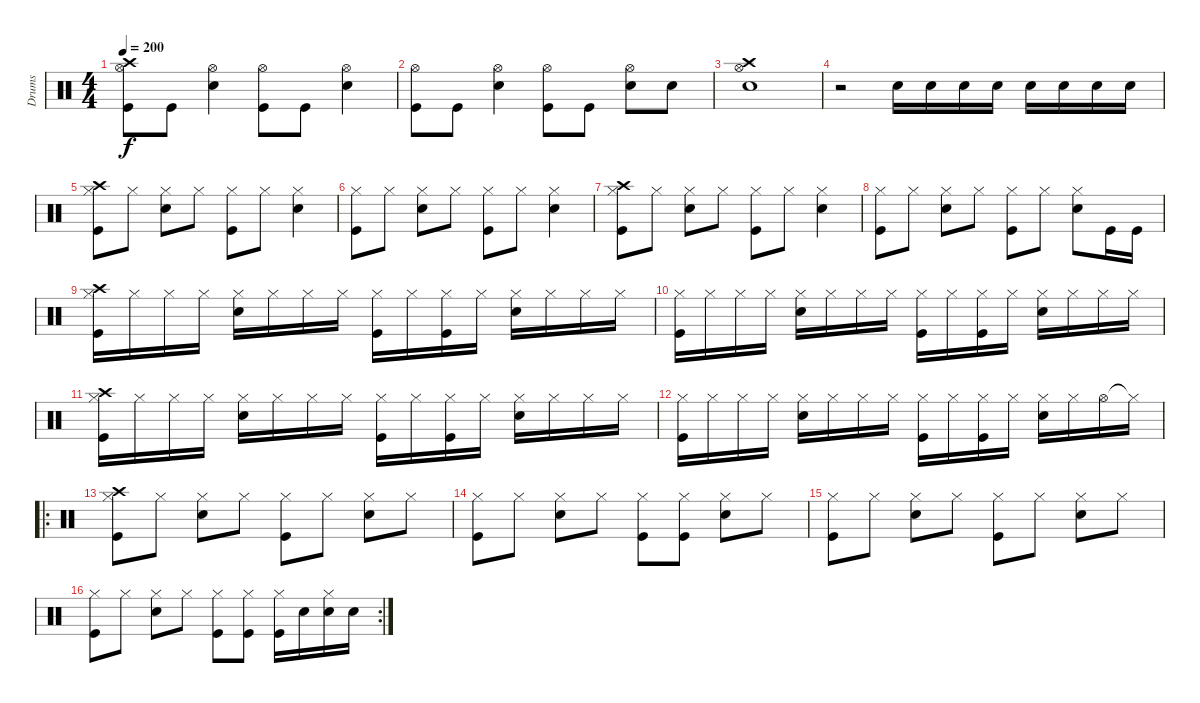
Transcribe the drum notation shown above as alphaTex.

\track ("Drums" "Drums") {instrument percussion}
\staff {score}
\articulation defaults
\ts (4 4)
\tempo 200
\clef neutral
\ks c
("Crash high (hit)" "Hi-Hat (open)" "Kick (hit)").8{dy f} "Kick (hit)".8 ("Hi-Hat (open)" "Snare (hit) 2").4 ("Hi-Hat (open)" "Kick (hit)").8 "Kick (hit)".8 ("Hi-Hat (open)" "Snare (hit) 2").4 |
("Hi-Hat (open)" "Kick (hit)").8 "Kick (hit)".8 ("Hi-Hat (open)" "Snare (hit) 2").4 ("Hi-Hat (open)" "Kick (hit)").8 "Kick (hit)".8 ("Hi-Hat (open)" "Snare (hit) 2").8 "Snare (hit) 2".8 |
("Crash high (hit)" "Hi-Hat (open)" "Snare (hit) 2").1 |
r.2 "Snare (hit) 2".16 "Snare (hit) 2".16 "Snare (hit) 2".16 "Snare (hit) 2".16 "Snare (hit) 2".16 "Snare (hit) 2".16 "Snare (hit) 2".16 "Snare (hit) 2".16 |
("Crash high (hit)" "Hi-Hat (closed)" "Kick (hit)").8 "Hi-Hat (closed)".8 ("Hi-Hat (closed)" "Snare (hit) 2").8 "Hi-Hat (closed)".8 ("Hi-Hat (closed)" "Kick (hit)").8 "Hi-Hat (closed)".8 ("Hi-Hat (closed)" "Snare (hit) 2").4 |
("Hi-Hat (closed)" "Kick (hit)").8 "Hi-Hat (closed)".8 ("Hi-Hat (closed)" "Snare (hit) 2").8 "Hi-Hat (closed)".8 ("Hi-Hat (closed)" "Kick (hit)").8 "Hi-Hat (closed)".8 ("Hi-Hat (closed)" "Snare (hit) 2").4 |
("Crash high (hit)" "Hi-Hat (closed)" "Kick (hit)").8 "Hi-Hat (closed)".8 ("Hi-Hat (closed)" "Snare (hit) 2").8 "Hi-Hat (closed)".8 ("Hi-Hat (closed)" "Kick (hit)").8 "Hi-Hat (closed)".8 ("Hi-Hat (closed)" "Snare (hit) 2").4 |
("Hi-Hat (closed)" "Kick (hit)").8 "Hi-Hat (closed)".8 ("Hi-Hat (closed)" "Snare (hit) 2").8 "Hi-Hat (closed)".8 ("Hi-Hat (closed)" "Kick (hit)").8 "Hi-Hat (closed)".8 ("Hi-Hat (closed)" "Snare (hit) 2").8 "Kick (hit)".16 "Kick (hit)".16 |
("Crash high (hit)" "Hi-Hat (closed)" "Kick (hit)").16 "Hi-Hat (closed)".16 "Hi-Hat (closed)".16 "Hi-Hat (closed)".16 ("Hi-Hat (closed)" "Snare (hit) 2").16 "Hi-Hat (closed)".16 "Hi-Hat (closed)".16 "Hi-Hat (closed)".16 ("Hi-Hat (closed)" "Kick (hit)").16 "Hi-Hat (closed)".16 ("Hi-Hat (closed)" "Kick (hit)").16 "Hi-Hat (closed)".16 ("Hi-Hat (closed)" "Snare (hit) 2").16 "Hi-Hat (closed)".16 "Hi-Hat (closed)".16 "Hi-Hat (closed)".16 |
("Hi-Hat (closed)" "Kick (hit)").16 "Hi-Hat (closed)".16 "Hi-Hat (closed)".16 "Hi-Hat (closed)".16 ("Hi-Hat (closed)" "Snare (hit) 2").16 "Hi-Hat (closed)".16 "Hi-Hat (closed)".16 "Hi-Hat (closed)".16 ("Hi-Hat (closed)" "Kick (hit)").16 "Hi-Hat (closed)".16 ("Hi-Hat (closed)" "Kick (hit)").16 "Hi-Hat (closed)".16 ("Hi-Hat (closed)" "Snare (hit) 2").16 "Hi-Hat (closed)".16 "Hi-Hat (closed)".16 "Hi-Hat (closed)".16 |
("Crash high (hit)" "Hi-Hat (closed)" "Kick (hit)").16 "Hi-Hat (closed)".16 "Hi-Hat (closed)".16 "Hi-Hat (closed)".16 ("Hi-Hat (closed)" "Snare (hit) 2").16 "Hi-Hat (closed)".16 "Hi-Hat (closed)".16 "Hi-Hat (closed)".16 ("Hi-Hat (closed)" "Kick (hit)").16 "Hi-Hat (closed)".16 ("Hi-Hat (closed)" "Kick (hit)").16 "Hi-Hat (closed)".16 ("Hi-Hat (closed)" "Snare (hit) 2").16 "Hi-Hat (closed)".16 "Hi-Hat (closed)".16 "Hi-Hat (closed)".16 |
("Hi-Hat (closed)" "Kick (hit)").16 "Hi-Hat (closed)".16 "Hi-Hat (closed)".16 "Hi-Hat (closed)".16 ("Hi-Hat (closed)" "Snare (hit) 2").16 "Hi-Hat (closed)".16 "Hi-Hat (closed)".16 "Hi-Hat (closed)".16 ("Hi-Hat (closed)" "Kick (hit)").16 "Hi-Hat (closed)".16 ("Hi-Hat (closed)" "Kick (hit)").16 "Hi-Hat (closed)".16 ("Hi-Hat (closed)" "Snare (hit) 2").16 "Hi-Hat (closed)".16 "Hi-Hat (open)".16 "Hi-Hat (closed)"{t}.16 |
\ro
("Crash high (hit)" "Hi-Hat (closed)" "Kick (hit)").8 "Hi-Hat (closed)".8 ("Hi-Hat (closed)" "Snare (hit) 2").8 "Hi-Hat (closed)".8 ("Hi-Hat (closed)" "Kick (hit)").8 "Hi-Hat (closed)".8 ("Hi-Hat (closed)" "Snare (hit) 2").8 "Hi-Hat (closed)".8 |
("Hi-Hat (closed)" "Kick (hit)").8 "Hi-Hat (closed)".8 ("Hi-Hat (closed)" "Snare (hit) 2").8 "Hi-Hat (closed)".8 ("Hi-Hat (closed)" "Kick (hit)").8 ("Hi-Hat (closed)" "Kick (hit)").8 ("Hi-Hat (closed)" "Snare (hit) 2").8 "Hi-Hat (closed)".8 |
("Hi-Hat (closed)" "Kick (hit)").8 "Hi-Hat (closed)".8 ("Hi-Hat (closed)" "Snare (hit) 2").8 "Hi-Hat (closed)".8 ("Hi-Hat (closed)" "Kick (hit)").8 "Hi-Hat (closed)".8 ("Hi-Hat (closed)" "Snare (hit) 2").8 "Hi-Hat (closed)".8 |
\rc 2
("Hi-Hat (closed)" "Kick (hit)").8 "Hi-Hat (closed)".8 ("Hi-Hat (closed)" "Snare (hit) 2").8 "Hi-Hat (closed)".8 ("Hi-Hat (closed)" "Kick (hit)").8 ("Hi-Hat (closed)" "Kick (hit)").8 ("Hi-Hat (closed)" "Kick (hit)").16 "Snare (hit) 2".16 ("Hi-Hat (closed)" "Snare (hit) 2").16 "Snare (hit) 2".16
